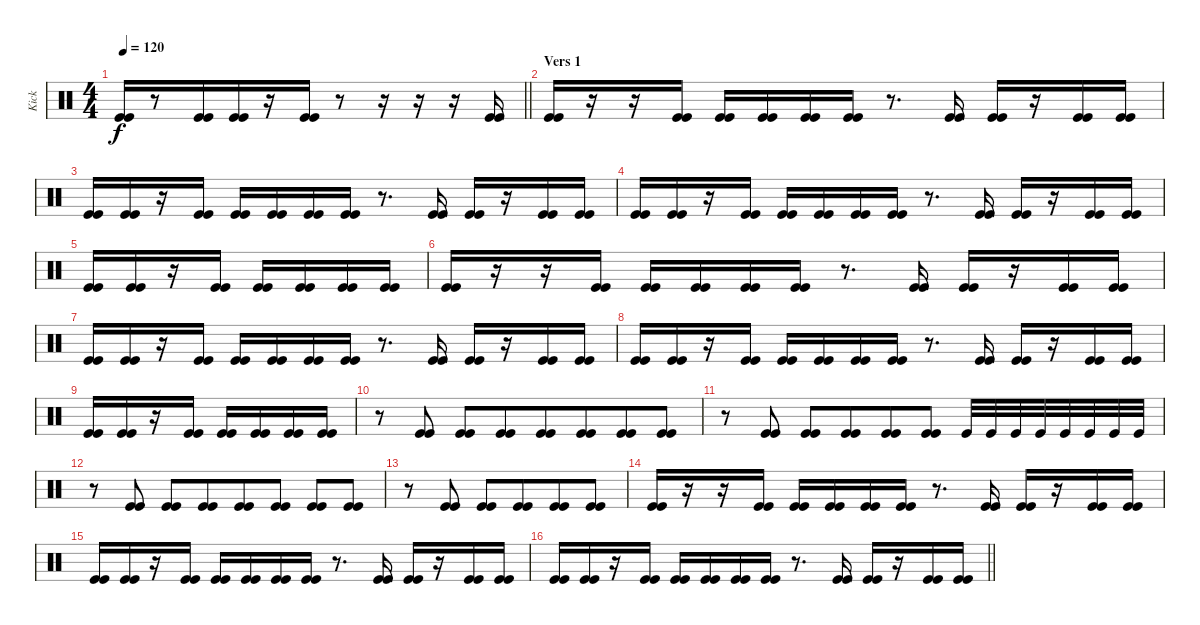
\track ("Kick" "Kick") {instrument percussion}
\staff {score}
\articulation defaults
\ts (4 4)
\tempo 120
\clef neutral
\barLineRight lightlight
\ks c
("Kick (hit)" "Kick (hit)").16{dy f beam merge} r.8{beam merge} ("Kick (hit)" "Kick (hit)").16{beam merge} ("Kick (hit)" "Kick (hit)").16 r.16{beam merge} ("Kick (hit)" "Kick (hit)").16 r.8 r.16 r.16{beam merge} r.16 ("Kick (hit)" "Kick (hit)").16 |
\section ("" "Vers 1")
("Kick (hit)" "Kick (hit)").16 r.16{beam merge} r.16{beam merge} ("Kick (hit)" "Kick (hit)").16 ("Kick (hit)" "Kick (hit)").16 ("Kick (hit)" "Kick (hit)").16 ("Kick (hit)" "Kick (hit)").16 ("Kick (hit)" "Kick (hit)").16 r.8{d beam merge} ("Kick (hit)" "Kick (hit)").16 ("Kick (hit)" "Kick (hit)").16 r.16{beam merge} ("Kick (hit)" "Kick (hit)").16 ("Kick (hit)" "Kick (hit)").16 |
("Kick (hit)" "Kick (hit)").16 ("Kick (hit)" "Kick (hit)").16{beam merge} r.16{beam merge} ("Kick (hit)" "Kick (hit)").16 ("Kick (hit)" "Kick (hit)").16 ("Kick (hit)" "Kick (hit)").16 ("Kick (hit)" "Kick (hit)").16 ("Kick (hit)" "Kick (hit)").16 r.8{d beam merge} ("Kick (hit)" "Kick (hit)").16 ("Kick (hit)" "Kick (hit)").16 r.16{beam merge} ("Kick (hit)" "Kick (hit)").16 ("Kick (hit)" "Kick (hit)").16 |
("Kick (hit)" "Kick (hit)").16 ("Kick (hit)" "Kick (hit)").16{beam merge} r.16{beam merge} ("Kick (hit)" "Kick (hit)").16 ("Kick (hit)" "Kick (hit)").16 ("Kick (hit)" "Kick (hit)").16 ("Kick (hit)" "Kick (hit)").16 ("Kick (hit)" "Kick (hit)").16 r.8{d} ("Kick (hit)" "Kick (hit)").16 ("Kick (hit)" "Kick (hit)").16 r.16{beam merge} ("Kick (hit)" "Kick (hit)").16 ("Kick (hit)" "Kick (hit)").16 |
("Kick (hit)" "Kick (hit)").16 ("Kick (hit)" "Kick (hit)").16{beam merge} r.16{beam merge} ("Kick (hit)" "Kick (hit)").16 ("Kick (hit)" "Kick (hit)").16 ("Kick (hit)" "Kick (hit)").16 ("Kick (hit)" "Kick (hit)").16 ("Kick (hit)" "Kick (hit)").16 |
("Kick (hit)" "Kick (hit)").16 r.16{beam merge} r.16{beam merge} ("Kick (hit)" "Kick (hit)").16 ("Kick (hit)" "Kick (hit)").16 ("Kick (hit)" "Kick (hit)").16 ("Kick (hit)" "Kick (hit)").16 ("Kick (hit)" "Kick (hit)").16 r.8{d beam merge} ("Kick (hit)" "Kick (hit)").16 ("Kick (hit)" "Kick (hit)").16 r.16{beam merge} ("Kick (hit)" "Kick (hit)").16 ("Kick (hit)" "Kick (hit)").16 |
("Kick (hit)" "Kick (hit)").16 ("Kick (hit)" "Kick (hit)").16{beam merge} r.16{beam merge} ("Kick (hit)" "Kick (hit)").16 ("Kick (hit)" "Kick (hit)").16 ("Kick (hit)" "Kick (hit)").16 ("Kick (hit)" "Kick (hit)").16 ("Kick (hit)" "Kick (hit)").16 r.8{d beam merge} ("Kick (hit)" "Kick (hit)").16 ("Kick (hit)" "Kick (hit)").16 r.16{beam merge} ("Kick (hit)" "Kick (hit)").16 ("Kick (hit)" "Kick (hit)").16 |
("Kick (hit)" "Kick (hit)").16 ("Kick (hit)" "Kick (hit)").16{beam merge} r.16{beam merge} ("Kick (hit)" "Kick (hit)").16 ("Kick (hit)" "Kick (hit)").16 ("Kick (hit)" "Kick (hit)").16 ("Kick (hit)" "Kick (hit)").16 ("Kick (hit)" "Kick (hit)").16 r.8{d} ("Kick (hit)" "Kick (hit)").16 ("Kick (hit)" "Kick (hit)").16 r.16{beam merge} ("Kick (hit)" "Kick (hit)").16 ("Kick (hit)" "Kick (hit)").16 |
("Kick (hit)" "Kick (hit)").16 ("Kick (hit)" "Kick (hit)").16{beam merge} r.16{beam merge} ("Kick (hit)" "Kick (hit)").16 ("Kick (hit)" "Kick (hit)").16 ("Kick (hit)" "Kick (hit)").16 ("Kick (hit)" "Kick (hit)").16 ("Kick (hit)" "Kick (hit)").16 |
r.8 ("Kick (hit)" "Kick (hit)").8 ("Kick (hit)" "Kick (hit)").8 ("Kick (hit)" "Kick (hit)").8{beam merge} ("Kick (hit)" "Kick (hit)").8 ("Kick (hit)" "Kick (hit)").8{beam merge} ("Kick (hit)" "Kick (hit)").8{beam merge} ("Kick (hit)" "Kick (hit)").8 |
r.8 ("Kick (hit)" "Kick (hit)").8 ("Kick (hit)" "Kick (hit)").8{beam merge} ("Kick (hit)" "Kick (hit)").8{beam merge} ("Kick (hit)" "Kick (hit)").8{beam merge} ("Kick (hit)" "Kick (hit)").8 "Kick (hit)".32 "Kick (hit)".32{beam merge} "Kick (hit)".32{beam merge} "Kick (hit)".32 "Kick (hit)".32 "Kick (hit)".32{beam merge} "Kick (hit)".32{beam merge} "Kick (hit)".32 |
r.8 ("Kick (hit)" "Kick (hit)").8 ("Kick (hit)" "Kick (hit)").8{beam merge} ("Kick (hit)" "Kick (hit)").8{beam merge} ("Kick (hit)" "Kick (hit)").8{beam merge} ("Kick (hit)" "Kick (hit)").8 ("Kick (hit)" "Kick (hit)").8 ("Kick (hit)" "Kick (hit)").8 |
r.8 ("Kick (hit)" "Kick (hit)").8 ("Kick (hit)" "Kick (hit)").8{beam merge} ("Kick (hit)" "Kick (hit)").8{beam merge} ("Kick (hit)" "Kick (hit)").8{beam merge} ("Kick (hit)" "Kick (hit)").8 |
("Kick (hit)" "Kick (hit)").16 r.16{beam merge} r.16{beam merge} ("Kick (hit)" "Kick (hit)").16 ("Kick (hit)" "Kick (hit)").16 ("Kick (hit)" "Kick (hit)").16 ("Kick (hit)" "Kick (hit)").16 ("Kick (hit)" "Kick (hit)").16 r.8{d beam merge} ("Kick (hit)" "Kick (hit)").16 ("Kick (hit)" "Kick (hit)").16 r.16{beam merge} ("Kick (hit)" "Kick (hit)").16 ("Kick (hit)" "Kick (hit)").16 |
("Kick (hit)" "Kick (hit)").16 ("Kick (hit)" "Kick (hit)").16{beam merge} r.16{beam merge} ("Kick (hit)" "Kick (hit)").16 ("Kick (hit)" "Kick (hit)").16 ("Kick (hit)" "Kick (hit)").16 ("Kick (hit)" "Kick (hit)").16 ("Kick (hit)" "Kick (hit)").16 r.8{d beam merge} ("Kick (hit)" "Kick (hit)").16 ("Kick (hit)" "Kick (hit)").16 r.16{beam merge} ("Kick (hit)" "Kick (hit)").16 ("Kick (hit)" "Kick (hit)").16 |
\barLineRight lightlight
("Kick (hit)" "Kick (hit)").16 ("Kick (hit)" "Kick (hit)").16{beam merge} r.16{beam merge} ("Kick (hit)" "Kick (hit)").16 ("Kick (hit)" "Kick (hit)").16 ("Kick (hit)" "Kick (hit)").16 ("Kick (hit)" "Kick (hit)").16 ("Kick (hit)" "Kick (hit)").16 r.8{d} ("Kick (hit)" "Kick (hit)").16 ("Kick (hit)" "Kick (hit)").16 r.16{beam merge} ("Kick (hit)" "Kick (hit)").16 ("Kick (hit)" "Kick (hit)").16
